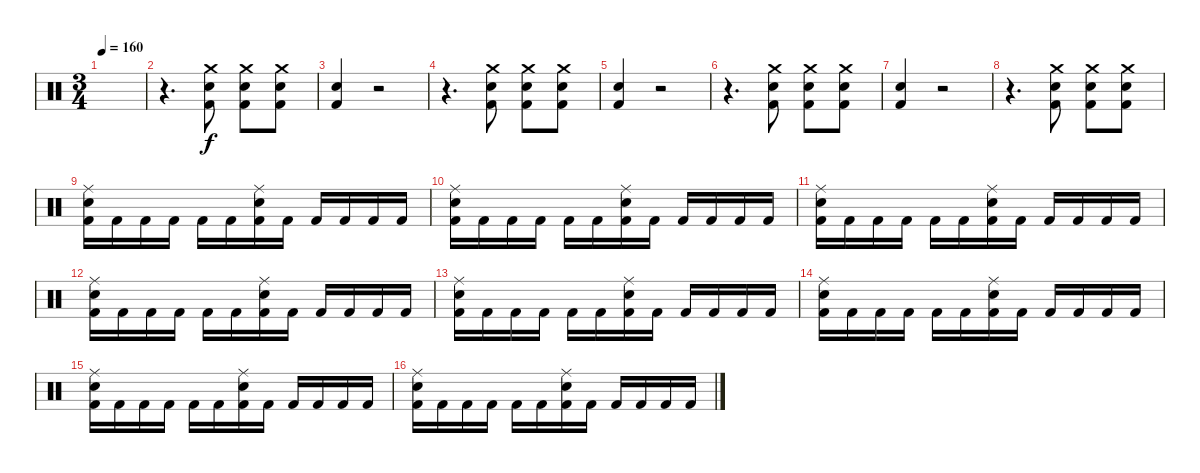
\track "" {instrument percussion}
\staff {score}
\articulation defaults
\ts (3 4)
\tempo 160
\clef neutral
\ks c
|
r.4{d} ("Crash medium (hit)" "Snare (hit) 2" "Kick (hit) 2").8 ("Crash medium (hit)" "Snare (hit) 2" "Kick (hit) 2").8 ("Crash medium (hit)" "Snare (hit) 2" "Kick (hit) 2").8 |
("Snare (hit) 2" "Kick (hit) 2").4 r.2 |
r.4{d} ("Crash medium (hit)" "Snare (hit) 2" "Kick (hit) 2").8 ("Crash medium (hit)" "Snare (hit) 2" "Kick (hit) 2").8 ("Crash medium (hit)" "Snare (hit) 2" "Kick (hit) 2").8 |
("Snare (hit) 2" "Kick (hit) 2").4 r.2 |
r.4{d} ("Crash medium (hit)" "Snare (hit) 2" "Kick (hit) 2").8 ("Crash medium (hit)" "Snare (hit) 2" "Kick (hit) 2").8 ("Crash medium (hit)" "Snare (hit) 2" "Kick (hit) 2").8 |
("Snare (hit) 2" "Kick (hit) 2").4 r.2 |
r.4{d} ("Crash medium (hit)" "Snare (hit) 2" "Kick (hit) 2").8 ("Crash medium (hit)" "Snare (hit) 2" "Kick (hit) 2").8 ("Crash medium (hit)" "Snare (hit) 2" "Kick (hit) 2").8 |
("Ride (middle)" "Snare (hit) 2" "Kick (hit) 2").16 "Kick (hit) 2".16 "Kick (hit) 2".16 "Kick (hit) 2".16 "Kick (hit) 2".16 "Kick (hit) 2".16 ("Ride (middle)" "Snare (hit) 2" "Kick (hit) 2").16 "Kick (hit) 2".16 "Kick (hit) 2".16 "Kick (hit) 2".16 "Kick (hit) 2".16 "Kick (hit) 2".16 |
("Ride (middle)" "Snare (hit) 2" "Kick (hit) 2").16 "Kick (hit) 2".16 "Kick (hit) 2".16 "Kick (hit) 2".16 "Kick (hit) 2".16 "Kick (hit) 2".16 ("Ride (middle)" "Snare (hit) 2" "Kick (hit) 2").16 "Kick (hit) 2".16 "Kick (hit) 2".16 "Kick (hit) 2".16 "Kick (hit) 2".16 "Kick (hit) 2".16 |
("Ride (middle)" "Snare (hit) 2" "Kick (hit) 2").16 "Kick (hit) 2".16 "Kick (hit) 2".16 "Kick (hit) 2".16 "Kick (hit) 2".16 "Kick (hit) 2".16 ("Ride (middle)" "Snare (hit) 2" "Kick (hit) 2").16 "Kick (hit) 2".16 "Kick (hit) 2".16 "Kick (hit) 2".16 "Kick (hit) 2".16 "Kick (hit) 2".16 |
("Ride (middle)" "Snare (hit) 2" "Kick (hit) 2").16 "Kick (hit) 2".16 "Kick (hit) 2".16 "Kick (hit) 2".16 "Kick (hit) 2".16 "Kick (hit) 2".16 ("Ride (middle)" "Snare (hit) 2" "Kick (hit) 2").16 "Kick (hit) 2".16 "Kick (hit) 2".16 "Kick (hit) 2".16 "Kick (hit) 2".16 "Kick (hit) 2".16 |
("Ride (middle)" "Snare (hit) 2" "Kick (hit) 2").16 "Kick (hit) 2".16 "Kick (hit) 2".16 "Kick (hit) 2".16 "Kick (hit) 2".16 "Kick (hit) 2".16 ("Ride (middle)" "Snare (hit) 2" "Kick (hit) 2").16 "Kick (hit) 2".16 "Kick (hit) 2".16 "Kick (hit) 2".16 "Kick (hit) 2".16 "Kick (hit) 2".16 |
("Ride (middle)" "Snare (hit) 2" "Kick (hit) 2").16 "Kick (hit) 2".16 "Kick (hit) 2".16 "Kick (hit) 2".16 "Kick (hit) 2".16 "Kick (hit) 2".16 ("Ride (middle)" "Snare (hit) 2" "Kick (hit) 2").16 "Kick (hit) 2".16 "Kick (hit) 2".16 "Kick (hit) 2".16 "Kick (hit) 2".16 "Kick (hit) 2".16 |
("Ride (middle)" "Snare (hit) 2" "Kick (hit) 2").16 "Kick (hit) 2".16 "Kick (hit) 2".16 "Kick (hit) 2".16 "Kick (hit) 2".16 "Kick (hit) 2".16 ("Ride (middle)" "Snare (hit) 2" "Kick (hit) 2").16 "Kick (hit) 2".16 "Kick (hit) 2".16 "Kick (hit) 2".16 "Kick (hit) 2".16 "Kick (hit) 2".16 |
("Ride (middle)" "Snare (hit) 2" "Kick (hit) 2").16 "Kick (hit) 2".16 "Kick (hit) 2".16 "Kick (hit) 2".16 "Kick (hit) 2".16 "Kick (hit) 2".16 ("Ride (middle)" "Snare (hit) 2" "Kick (hit) 2").16 "Kick (hit) 2".16 "Kick (hit) 2".16 "Kick (hit) 2".16 "Kick (hit) 2".16 "Kick (hit) 2".16
